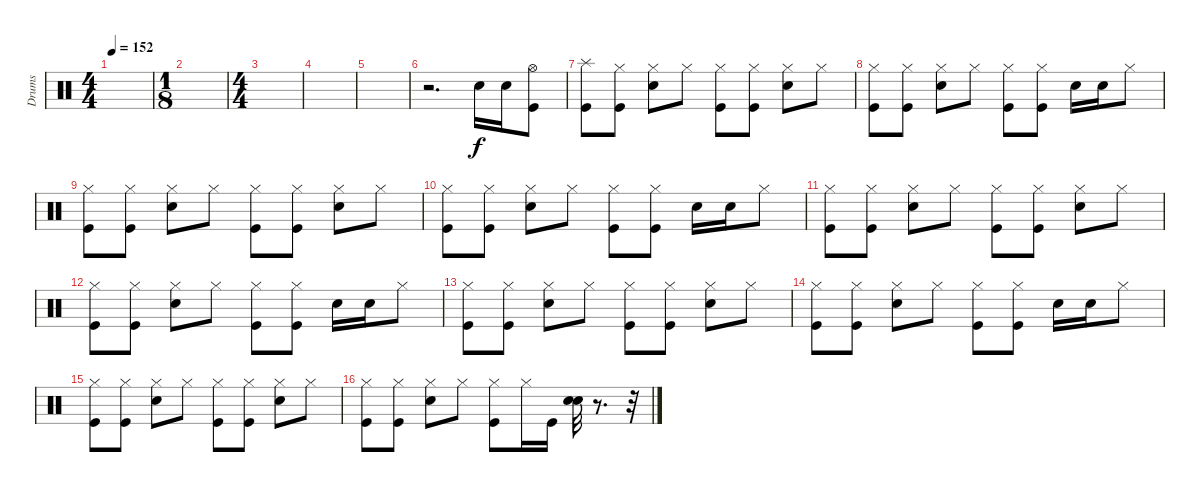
\track ("Drums" "Drums") {instrument percussion}
\staff {score}
\articulation defaults
\ts (4 4)
\tempo 152
\clef neutral
\ks c
|
\ts (1 8)
|
\ts (4 4)
|
|
|
r.2{d} "Snare (hit) 2".16 "Snare (hit) 2".16 ("Hi-Hat (open)" "Kick (hit)").8 |
("Splash (hit)" "Kick (hit)").8{dy f} ("Hi-Hat (closed)" "Kick (hit)").8 ("Hi-Hat (closed)" "Snare (hit) 2").8 "Hi-Hat (closed)".8 ("Hi-Hat (closed)" "Kick (hit)").8 ("Hi-Hat (closed)" "Kick (hit)").8 ("Hi-Hat (closed)" "Snare (hit) 2").8 "Hi-Hat (closed)".8 |
("Hi-Hat (closed)" "Kick (hit)").8 ("Hi-Hat (closed)" "Kick (hit)").8 ("Hi-Hat (closed)" "Snare (hit) 2").8 "Hi-Hat (closed)".8 ("Hi-Hat (closed)" "Kick (hit)").8 ("Hi-Hat (closed)" "Kick (hit)").8 "Snare (hit) 2".16 "Snare (hit) 2".16 "Hi-Hat (closed)".8 |
("Hi-Hat (closed)" "Kick (hit)").8 ("Hi-Hat (closed)" "Kick (hit)").8 ("Hi-Hat (closed)" "Snare (hit) 2").8 "Hi-Hat (closed)".8 ("Hi-Hat (closed)" "Kick (hit)").8 ("Hi-Hat (closed)" "Kick (hit)").8 ("Hi-Hat (closed)" "Snare (hit) 2").8 "Hi-Hat (closed)".8 |
("Hi-Hat (closed)" "Kick (hit)").8 ("Hi-Hat (closed)" "Kick (hit)").8 ("Hi-Hat (closed)" "Snare (hit) 2").8 "Hi-Hat (closed)".8 ("Hi-Hat (closed)" "Kick (hit)").8 ("Hi-Hat (closed)" "Kick (hit)").8 "Snare (hit) 2".16 "Snare (hit) 2".16 "Hi-Hat (closed)".8 |
("Hi-Hat (closed)" "Kick (hit)").8 ("Hi-Hat (closed)" "Kick (hit)").8 ("Hi-Hat (closed)" "Snare (hit) 2").8 "Hi-Hat (closed)".8 ("Hi-Hat (closed)" "Kick (hit)").8 ("Hi-Hat (closed)" "Kick (hit)").8 ("Hi-Hat (closed)" "Snare (hit) 2").8 "Hi-Hat (closed)".8 |
("Hi-Hat (closed)" "Kick (hit)").8 ("Hi-Hat (closed)" "Kick (hit)").8 ("Hi-Hat (closed)" "Snare (hit) 2").8 "Hi-Hat (closed)".8 ("Hi-Hat (closed)" "Kick (hit)").8 ("Hi-Hat (closed)" "Kick (hit)").8 "Snare (hit) 2".16 "Snare (hit) 2".16 "Hi-Hat (closed)".8 |
("Hi-Hat (closed)" "Kick (hit)").8 ("Hi-Hat (closed)" "Kick (hit)").8 ("Hi-Hat (closed)" "Snare (hit) 2").8 "Hi-Hat (closed)".8 ("Hi-Hat (closed)" "Kick (hit)").8 ("Hi-Hat (closed)" "Kick (hit)").8 ("Hi-Hat (closed)" "Snare (hit) 2").8 "Hi-Hat (closed)".8 |
("Hi-Hat (closed)" "Kick (hit)").8 ("Hi-Hat (closed)" "Kick (hit)").8 ("Hi-Hat (closed)" "Snare (hit) 2").8 "Hi-Hat (closed)".8 ("Hi-Hat (closed)" "Kick (hit)").8 ("Hi-Hat (closed)" "Kick (hit)").8 "Snare (hit) 2".16 "Snare (hit) 2".16 "Hi-Hat (closed)".8 |
("Hi-Hat (closed)" "Kick (hit)").8 ("Hi-Hat (closed)" "Kick (hit)").8 ("Hi-Hat (closed)" "Snare (hit) 2").8 "Hi-Hat (closed)".8 ("Hi-Hat (closed)" "Kick (hit)").8 ("Hi-Hat (closed)" "Kick (hit)").8 ("Hi-Hat (closed)" "Snare (hit) 2").8 "Hi-Hat (closed)".8 |
("Hi-Hat (closed)" "Kick (hit)").8 ("Hi-Hat (closed)" "Kick (hit)").8 ("Hi-Hat (closed)" "Snare (hit) 2").8 "Hi-Hat (closed)".8 ("Hi-Hat (closed)" "Kick (hit)").8 "Hi-Hat (closed)".16 "Kick (hit)".16 ("Snare (hit) 2" "Snare (hit) 2").32 r.8{d} r.32
